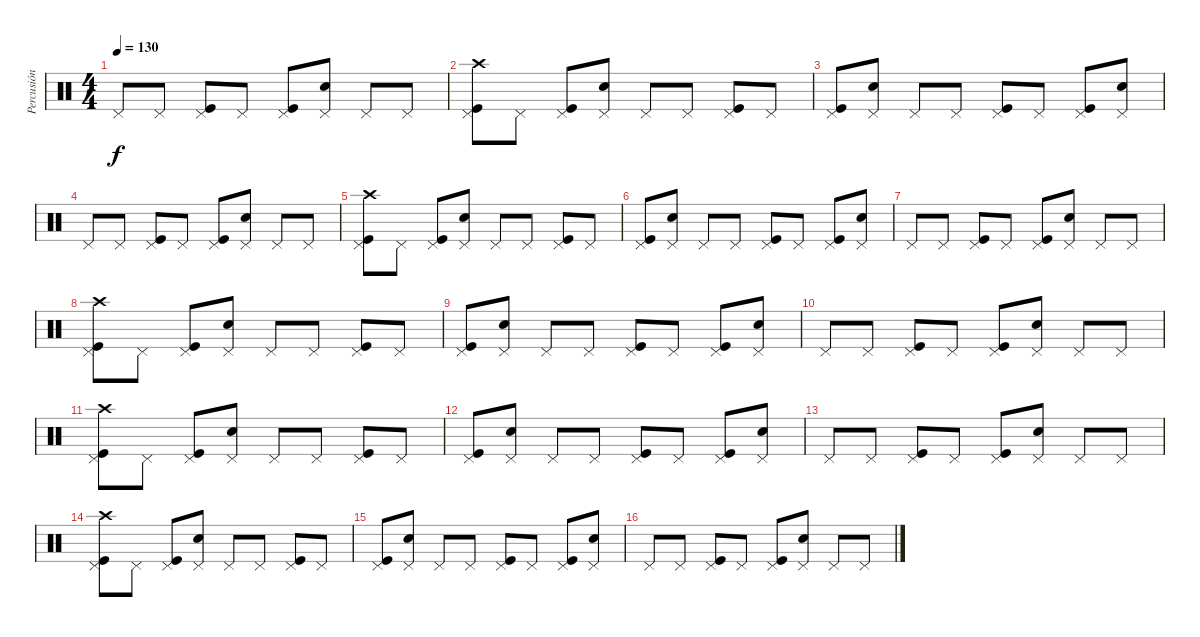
\track ("Percusión" "Percusión") {instrument percussion}
\staff {score}
\articulation defaults
\ts (4 4)
\tempo 130
\clef neutral
\ks c "Pedal Hi-Hat (hit)".8{dy f} "Pedal Hi-Hat (hit)".8
("Kick (hit)" "Pedal Hi-Hat (hit)").8 "Pedal Hi-Hat (hit)".8 ("Kick (hit)" "Pedal Hi-Hat (hit)").8 ("Electric Snare (hit)" "Pedal Hi-Hat (hit)").8 "Pedal Hi-Hat (hit)".8 "Pedal Hi-Hat (hit)".8 |
("Kick (hit)" "Pedal Hi-Hat (hit)" "Crash high (hit)").8 "Pedal Hi-Hat (hit)".8 ("Kick (hit)" "Pedal Hi-Hat (hit)").8 ("Electric Snare (hit)" "Pedal Hi-Hat (hit)").8 "Pedal Hi-Hat (hit)".8 "Pedal Hi-Hat (hit)".8 ("Kick (hit)" "Pedal Hi-Hat (hit)").8 "Pedal Hi-Hat (hit)".8 |
("Kick (hit)" "Pedal Hi-Hat (hit)").8 ("Electric Snare (hit)" "Pedal Hi-Hat (hit)").8 "Pedal Hi-Hat (hit)".8 "Pedal Hi-Hat (hit)".8 ("Kick (hit)" "Pedal Hi-Hat (hit)").8 "Pedal Hi-Hat (hit)".8 ("Kick (hit)" "Pedal Hi-Hat (hit)").8 ("Electric Snare (hit)" "Pedal Hi-Hat (hit)").8 |
"Pedal Hi-Hat (hit)".8 "Pedal Hi-Hat (hit)".8 ("Kick (hit)" "Pedal Hi-Hat (hit)").8 "Pedal Hi-Hat (hit)".8 ("Kick (hit)" "Pedal Hi-Hat (hit)").8 ("Electric Snare (hit)" "Pedal Hi-Hat (hit)").8 "Pedal Hi-Hat (hit)".8 "Pedal Hi-Hat (hit)".8 |
("Kick (hit)" "Pedal Hi-Hat (hit)" "Crash high (hit)").8 "Pedal Hi-Hat (hit)".8 ("Kick (hit)" "Pedal Hi-Hat (hit)").8 ("Electric Snare (hit)" "Pedal Hi-Hat (hit)").8 "Pedal Hi-Hat (hit)".8 "Pedal Hi-Hat (hit)".8 ("Kick (hit)" "Pedal Hi-Hat (hit)").8 "Pedal Hi-Hat (hit)".8 |
("Kick (hit)" "Pedal Hi-Hat (hit)").8 ("Electric Snare (hit)" "Pedal Hi-Hat (hit)").8 "Pedal Hi-Hat (hit)".8 "Pedal Hi-Hat (hit)".8 ("Kick (hit)" "Pedal Hi-Hat (hit)").8 "Pedal Hi-Hat (hit)".8 ("Kick (hit)" "Pedal Hi-Hat (hit)").8 ("Electric Snare (hit)" "Pedal Hi-Hat (hit)").8 |
"Pedal Hi-Hat (hit)".8 "Pedal Hi-Hat (hit)".8 ("Kick (hit)" "Pedal Hi-Hat (hit)").8 "Pedal Hi-Hat (hit)".8 ("Kick (hit)" "Pedal Hi-Hat (hit)").8 ("Electric Snare (hit)" "Pedal Hi-Hat (hit)").8 "Pedal Hi-Hat (hit)".8 "Pedal Hi-Hat (hit)".8 |
("Kick (hit)" "Pedal Hi-Hat (hit)" "Crash high (hit)").8 "Pedal Hi-Hat (hit)".8 ("Kick (hit)" "Pedal Hi-Hat (hit)").8 ("Electric Snare (hit)" "Pedal Hi-Hat (hit)").8 "Pedal Hi-Hat (hit)".8 "Pedal Hi-Hat (hit)".8 ("Kick (hit)" "Pedal Hi-Hat (hit)").8 "Pedal Hi-Hat (hit)".8 |
("Kick (hit)" "Pedal Hi-Hat (hit)").8 ("Electric Snare (hit)" "Pedal Hi-Hat (hit)").8 "Pedal Hi-Hat (hit)".8 "Pedal Hi-Hat (hit)".8 ("Kick (hit)" "Pedal Hi-Hat (hit)").8 "Pedal Hi-Hat (hit)".8 ("Kick (hit)" "Pedal Hi-Hat (hit)").8 ("Electric Snare (hit)" "Pedal Hi-Hat (hit)").8 |
"Pedal Hi-Hat (hit)".8 "Pedal Hi-Hat (hit)".8 ("Kick (hit)" "Pedal Hi-Hat (hit)").8 "Pedal Hi-Hat (hit)".8 ("Kick (hit)" "Pedal Hi-Hat (hit)").8 ("Electric Snare (hit)" "Pedal Hi-Hat (hit)").8 "Pedal Hi-Hat (hit)".8 "Pedal Hi-Hat (hit)".8 |
("Kick (hit)" "Pedal Hi-Hat (hit)" "Crash high (hit)").8 "Pedal Hi-Hat (hit)".8 ("Kick (hit)" "Pedal Hi-Hat (hit)").8 ("Electric Snare (hit)" "Pedal Hi-Hat (hit)").8 "Pedal Hi-Hat (hit)".8 "Pedal Hi-Hat (hit)".8 ("Kick (hit)" "Pedal Hi-Hat (hit)").8 "Pedal Hi-Hat (hit)".8 |
("Kick (hit)" "Pedal Hi-Hat (hit)").8 ("Electric Snare (hit)" "Pedal Hi-Hat (hit)").8 "Pedal Hi-Hat (hit)".8 "Pedal Hi-Hat (hit)".8 ("Kick (hit)" "Pedal Hi-Hat (hit)").8 "Pedal Hi-Hat (hit)".8 ("Kick (hit)" "Pedal Hi-Hat (hit)").8 ("Electric Snare (hit)" "Pedal Hi-Hat (hit)").8 |
"Pedal Hi-Hat (hit)".8 "Pedal Hi-Hat (hit)".8 ("Kick (hit)" "Pedal Hi-Hat (hit)").8 "Pedal Hi-Hat (hit)".8 ("Kick (hit)" "Pedal Hi-Hat (hit)").8 ("Electric Snare (hit)" "Pedal Hi-Hat (hit)").8 "Pedal Hi-Hat (hit)".8 "Pedal Hi-Hat (hit)".8 |
("Kick (hit)" "Pedal Hi-Hat (hit)" "Crash high (hit)").8 "Pedal Hi-Hat (hit)".8 ("Kick (hit)" "Pedal Hi-Hat (hit)").8 ("Electric Snare (hit)" "Pedal Hi-Hat (hit)").8 "Pedal Hi-Hat (hit)".8 "Pedal Hi-Hat (hit)".8 ("Kick (hit)" "Pedal Hi-Hat (hit)").8 "Pedal Hi-Hat (hit)".8 |
("Kick (hit)" "Pedal Hi-Hat (hit)").8 ("Electric Snare (hit)" "Pedal Hi-Hat (hit)").8 "Pedal Hi-Hat (hit)".8 "Pedal Hi-Hat (hit)".8 ("Kick (hit)" "Pedal Hi-Hat (hit)").8 "Pedal Hi-Hat (hit)".8 ("Kick (hit)" "Pedal Hi-Hat (hit)").8 ("Electric Snare (hit)" "Pedal Hi-Hat (hit)").8 |
"Pedal Hi-Hat (hit)".8 "Pedal Hi-Hat (hit)".8 ("Kick (hit)" "Pedal Hi-Hat (hit)").8 "Pedal Hi-Hat (hit)".8 ("Kick (hit)" "Pedal Hi-Hat (hit)").8 ("Electric Snare (hit)" "Pedal Hi-Hat (hit)").8 "Pedal Hi-Hat (hit)".8 "Pedal Hi-Hat (hit)".8
